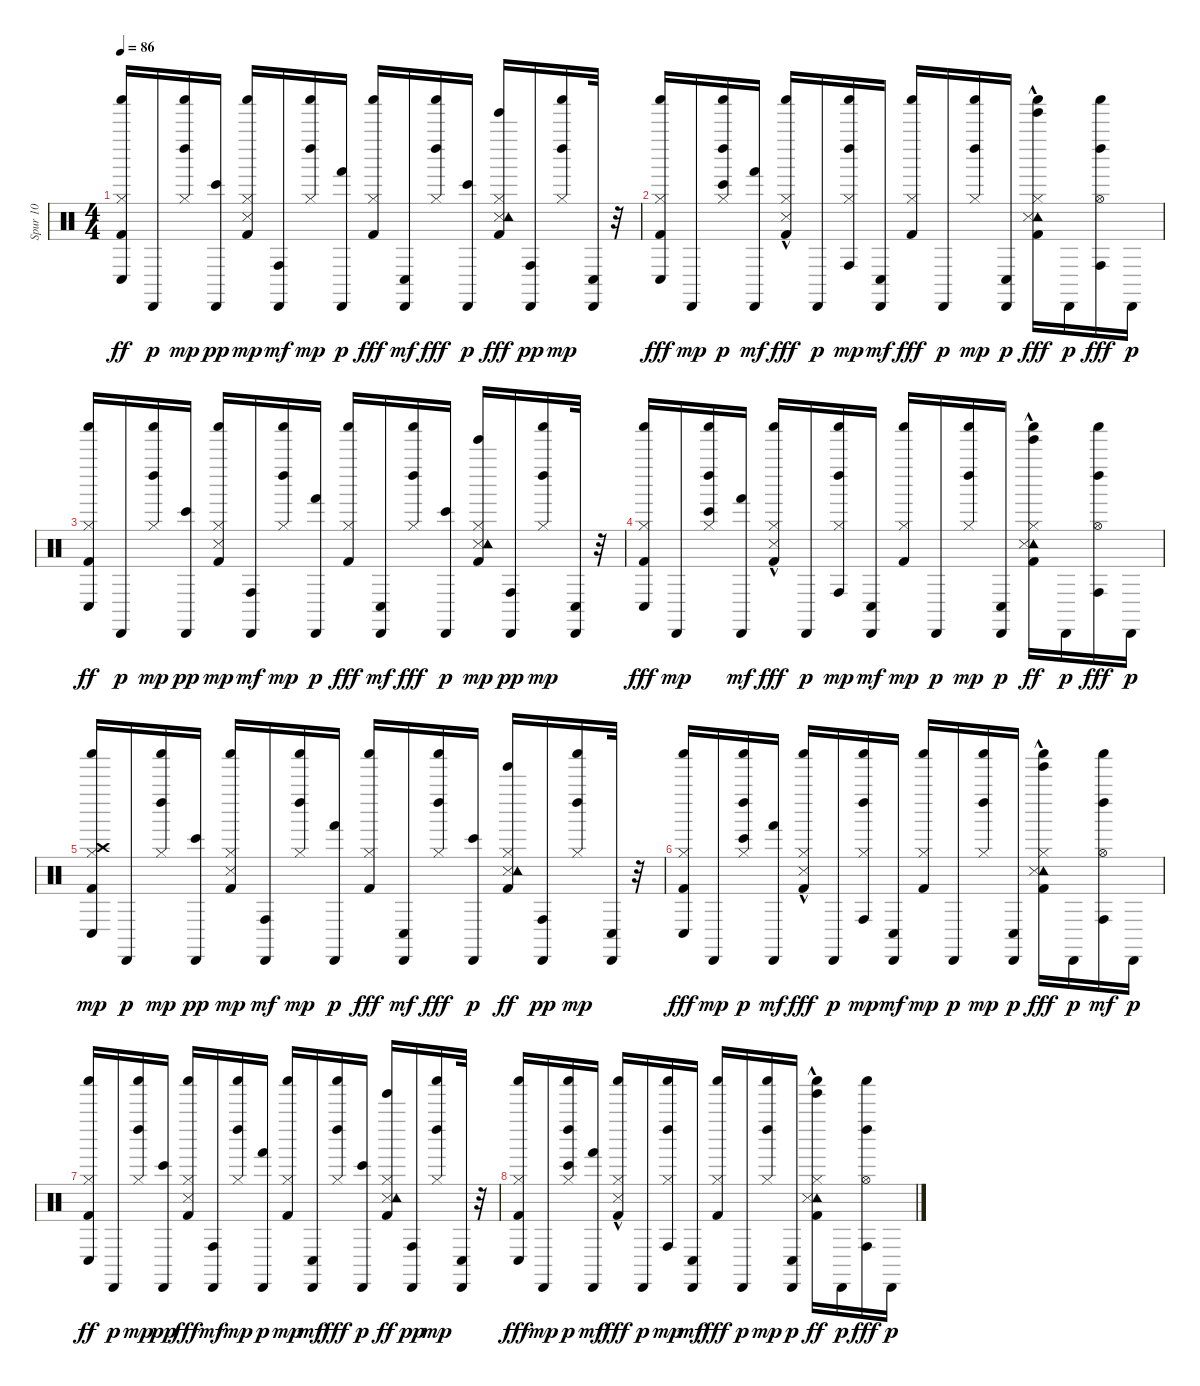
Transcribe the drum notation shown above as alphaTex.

\track ("Spur 10" "Spur 10") {instrument percussion}
\staff {score}
\articulation defaults
\ts (4 4)
\tempo 86
\clef neutral
\ks c
("Hi-Hat (closed)" "Shaker (hit)" "Kick (hit) 2" "Conga low (hit)").16{dy ff} "Cabasa (hit)".16{dy p} ("Shaker (hit)" "Hi-Hat (closed)" "Left Maraca (hit)").16{dy mp} ("Bongo High (hit)" "Cabasa (hit)").16{dy pp} ("Shaker (hit)" "Kick (hit) 2" "Snare (side stick) 3" "Hi-Hat (closed)").16{dy mp} ("Cabasa (hit)" "Conga high (hit)").16{dy mf} ("Shaker (hit)" "Hi-Hat (closed)" "Left Maraca (hit)").16{dy mp} ("Hand (hit)" "Cabasa (hit)").16{dy p} ("Hi-Hat (closed)" "Shaker (hit)" "Kick (hit) 2").16{dy fff} ("Cabasa (hit)" "Conga low (hit)").16{dy mf} ("Hi-Hat (closed)" "Shaker (hit)" "Left Maraca (hit)").16{dy fff} ("Bongo High (hit)" "Cabasa (hit)").16{dy p} ("Hi-Hat (closed)" "Tinkle Bell (hit)" "Kick (hit) 2" "Snare (side stick) 3" "Tambourine (hit)").16{dy fff} ("Conga high (hit)" "Cabasa (hit)").16{dy pp} ("Hi-Hat (closed)" "Shaker (hit)" "Left Maraca (hit)").16{dy mp} ("Conga low (hit)" "Cabasa (hit)").32 r.32 |
("Hi-Hat (closed)" "Kick (hit) 2" "Shaker (hit)" "Conga low (hit)").16{dy fff} "Cabasa (hit)".16{dy mp} ("Hi-Hat (closed)" "Shaker (hit)" "Bongo High (hit)" "Left Maraca (hit)").16{dy p} ("Cabasa (hit)" "Hand (hit)").16{dy mf} ("Hi-Hat (closed)" "Snare (side stick) 3"{hac} "Shaker (hit)" "Kick (hit) 2").16{dy fff} "Cabasa (hit)".16{dy p} ("Hi-Hat (closed)" "Conga high (hit)" "Shaker (hit)" "Left Maraca (hit)").16{dy mp} ("Cabasa (hit)" "Conga low (hit)").16{dy mf} ("Hi-Hat (closed)" "Shaker (hit)" "Kick (hit) 2").16{dy fff} "Cabasa (hit)".16{dy p} ("Hi-Hat (closed)" "Shaker (hit)" "Left Maraca (hit)").16{dy mp} ("Cabasa (hit)" "Conga low (hit)").16{dy p} ("Hi-Hat (closed)" "Tinkle Bell (hit)"{hac} "Tambourine (hit)"{hac} "Shaker (hit)" "Kick (hit) 2" "Snare (side stick) 3"{hac}).16{dy fff} "Cabasa (hit)".16{dy p} ("Hi-Hat (open)" "Shaker (hit)" "Conga high (hit)" "Left Maraca (hit)").16{dy fff} "Cabasa (hit)".16{dy p} |
("Hi-Hat (closed)" "Shaker (hit)" "Kick (hit) 2" "Conga low (hit)").16{dy ff} "Cabasa (hit)".16{dy p} ("Shaker (hit)" "Hi-Hat (closed)" "Left Maraca (hit)").16{dy mp} ("Bongo High (hit)" "Cabasa (hit)").16{dy pp} ("Shaker (hit)" "Kick (hit) 2" "Snare (side stick) 3" "Hi-Hat (closed)").16{dy mp} ("Cabasa (hit)" "Conga high (hit)").16{dy mf} ("Shaker (hit)" "Hi-Hat (closed)" "Left Maraca (hit)").16{dy mp} ("Hand (hit)" "Cabasa (hit)").16{dy p} ("Hi-Hat (closed)" "Shaker (hit)" "Kick (hit) 2").16{dy fff} ("Cabasa (hit)" "Conga low (hit)").16{dy mf} ("Shaker (hit)" "Hi-Hat (closed)" "Left Maraca (hit)").16{dy fff} ("Bongo High (hit)" "Cabasa (hit)").16{dy p} ("Snare (side stick) 3" "Kick (hit) 2" "Tambourine (hit)" "Tinkle Bell (hit)" "Hi-Hat (closed)").16{dy mp} ("Conga high (hit)" "Cabasa (hit)").16{dy pp} ("Shaker (hit)" "Hi-Hat (closed)" "Left Maraca (hit)").16{dy mp} ("Conga low (hit)" "Cabasa (hit)").32 r.32 |
("Hi-Hat (closed)" "Kick (hit) 2" "Shaker (hit)" "Conga low (hit)").16{dy fff} "Cabasa (hit)".16{dy mp} ("Shaker (hit)" "Bongo High (hit)" "Hi-Hat (closed)" "Left Maraca (hit)").16 ("Cabasa (hit)" "Hand (hit)").16{dy mf} ("Hi-Hat (closed)" "Snare (side stick) 3"{hac} "Shaker (hit)" "Kick (hit) 2").16{dy fff} "Cabasa (hit)".16{dy p} ("Conga high (hit)" "Shaker (hit)" "Hi-Hat (closed)" "Left Maraca (hit)").16{dy mp} ("Cabasa (hit)" "Conga low (hit)").16{dy mf} ("Shaker (hit)" "Kick (hit) 2" "Hi-Hat (closed)").16{dy mp} "Cabasa (hit)".16{dy p} ("Shaker (hit)" "Hi-Hat (closed)" "Left Maraca (hit)").16{dy mp} ("Cabasa (hit)" "Conga low (hit)").16{dy p} ("Hi-Hat (closed)" "Tambourine (hit)"{hac} "Shaker (hit)" "Kick (hit) 2" "Snare (side stick) 3"{hac} "Tinkle Bell (hit)").16{dy ff} "Cabasa (hit)".16{dy p} ("Hi-Hat (open)" "Shaker (hit)" "Conga high (hit)" "Left Maraca (hit)").16{dy fff} "Cabasa (hit)".16{dy p} |
("Shaker (hit)" "Kick (hit) 2" "Conga low (hit)" "Crash high (hit)" "Hi-Hat (closed)").16{dy mp} "Cabasa (hit)".16{dy p} ("Hi-Hat (closed)" "Shaker (hit)" "Left Maraca (hit)").16{dy mp} ("Bongo High (hit)" "Cabasa (hit)").16{dy pp} ("Shaker (hit)" "Kick (hit) 2" "Snare (side stick) 3" "Hi-Hat (closed)").16{dy mp} ("Cabasa (hit)" "Conga high (hit)").16{dy mf} ("Shaker (hit)" "Hi-Hat (closed)" "Left Maraca (hit)").16{dy mp} ("Hand (hit)" "Cabasa (hit)").16{dy p} ("Hi-Hat (closed)" "Shaker (hit)" "Kick (hit) 2").16{dy fff} ("Cabasa (hit)" "Conga low (hit)").16{dy mf} ("Shaker (hit)" "Hi-Hat (closed)" "Left Maraca (hit)").16{dy fff} ("Bongo High (hit)" "Cabasa (hit)").16{dy p} ("Hi-Hat (closed)" "Snare (side stick) 3" "Kick (hit) 2" "Tambourine (hit)" "Tinkle Bell (hit)").16{dy ff} ("Conga high (hit)" "Cabasa (hit)").16{dy pp} ("Shaker (hit)" "Hi-Hat (closed)" "Left Maraca (hit)").16{dy mp} ("Conga low (hit)" "Cabasa (hit)").32 r.32 |
("Hi-Hat (closed)" "Kick (hit) 2" "Shaker (hit)" "Conga low (hit)").16{dy fff} "Cabasa (hit)".16{dy mp} ("Hi-Hat (closed)" "Shaker (hit)" "Bongo High (hit)" "Left Maraca (hit)").16{dy p} ("Cabasa (hit)" "Hand (hit)").16{dy mf} ("Hi-Hat (closed)" "Snare (side stick) 3"{hac} "Shaker (hit)" "Kick (hit) 2").16{dy fff} "Cabasa (hit)".16{dy p} ("Conga high (hit)" "Shaker (hit)" "Hi-Hat (closed)" "Left Maraca (hit)").16{dy mp} ("Cabasa (hit)" "Conga low (hit)").16{dy mf} ("Shaker (hit)" "Kick (hit) 2" "Hi-Hat (closed)").16{dy mp} "Cabasa (hit)".16{dy p} ("Shaker (hit)" "Hi-Hat (closed)" "Left Maraca (hit)").16{dy mp} ("Cabasa (hit)" "Conga low (hit)").16{dy p} ("Tinkle Bell (hit)" "Tambourine (hit)"{hac} "Shaker (hit)" "Kick (hit) 2" "Snare (side stick) 3"{hac} "Hi-Hat (closed)").16{dy fff} "Cabasa (hit)".16{dy p} ("Shaker (hit)" "Conga high (hit)" "Hi-Hat (open)" "Left Maraca (hit)").16{dy mf} "Cabasa (hit)".16{dy p} |
("Hi-Hat (closed)" "Shaker (hit)" "Kick (hit) 2" "Conga low (hit)").16{dy ff} "Cabasa (hit)".16{dy p} ("Shaker (hit)" "Hi-Hat (closed)" "Left Maraca (hit)").16{dy mp} ("Bongo High (hit)" "Cabasa (hit)").16{dy pp} ("Hi-Hat (closed)" "Shaker (hit)" "Kick (hit) 2" "Snare (side stick) 3").16{dy fff} ("Cabasa (hit)" "Conga high (hit)").16{dy mf} ("Hi-Hat (closed)" "Shaker (hit)" "Left Maraca (hit)").16{dy mp} ("Hand (hit)" "Cabasa (hit)").16{dy p} ("Shaker (hit)" "Kick (hit) 2" "Hi-Hat (closed)").16{dy mp} ("Cabasa (hit)" "Conga low (hit)").16{dy mf} ("Shaker (hit)" "Hi-Hat (closed)" "Left Maraca (hit)").16{dy fff} ("Bongo High (hit)" "Cabasa (hit)").16{dy p} ("Hi-Hat (closed)" "Snare (side stick) 3" "Kick (hit) 2" "Tambourine (hit)" "Tinkle Bell (hit)").16{dy ff} ("Conga high (hit)" "Cabasa (hit)").16{dy pp} ("Shaker (hit)" "Hi-Hat (closed)" "Left Maraca (hit)").16{dy mp} ("Conga low (hit)" "Cabasa (hit)").32 r.32 |
("Hi-Hat (closed)" "Kick (hit) 2" "Shaker (hit)" "Conga low (hit)").16{dy fff} "Cabasa (hit)".16{dy mp} ("Hi-Hat (closed)" "Shaker (hit)" "Bongo High (hit)" "Left Maraca (hit)").16{dy p} ("Cabasa (hit)" "Hand (hit)").16{dy mf} ("Hi-Hat (closed)" "Snare (side stick) 3"{hac} "Shaker (hit)" "Kick (hit) 2").16{dy fff} "Cabasa (hit)".16{dy p} ("Conga high (hit)" "Shaker (hit)" "Hi-Hat (closed)" "Left Maraca (hit)").16{dy mp} ("Cabasa (hit)" "Conga low (hit)").16{dy mf} ("Hi-Hat (closed)" "Shaker (hit)" "Kick (hit) 2").16{dy fff} "Cabasa (hit)".16{dy p} ("Shaker (hit)" "Hi-Hat (closed)" "Left Maraca (hit)").16{dy mp} ("Cabasa (hit)" "Conga low (hit)").16{dy p} ("Hi-Hat (closed)" "Tambourine (hit)"{hac} "Shaker (hit)" "Kick (hit) 2" "Snare (side stick) 3"{hac} "Tinkle Bell (hit)"{hac}).16{dy ff} "Cabasa (hit)".16{dy p} ("Hi-Hat (open)" "Shaker (hit)" "Conga high (hit)" "Left Maraca (hit)").16{dy fff} "Cabasa (hit)".16{dy p}
